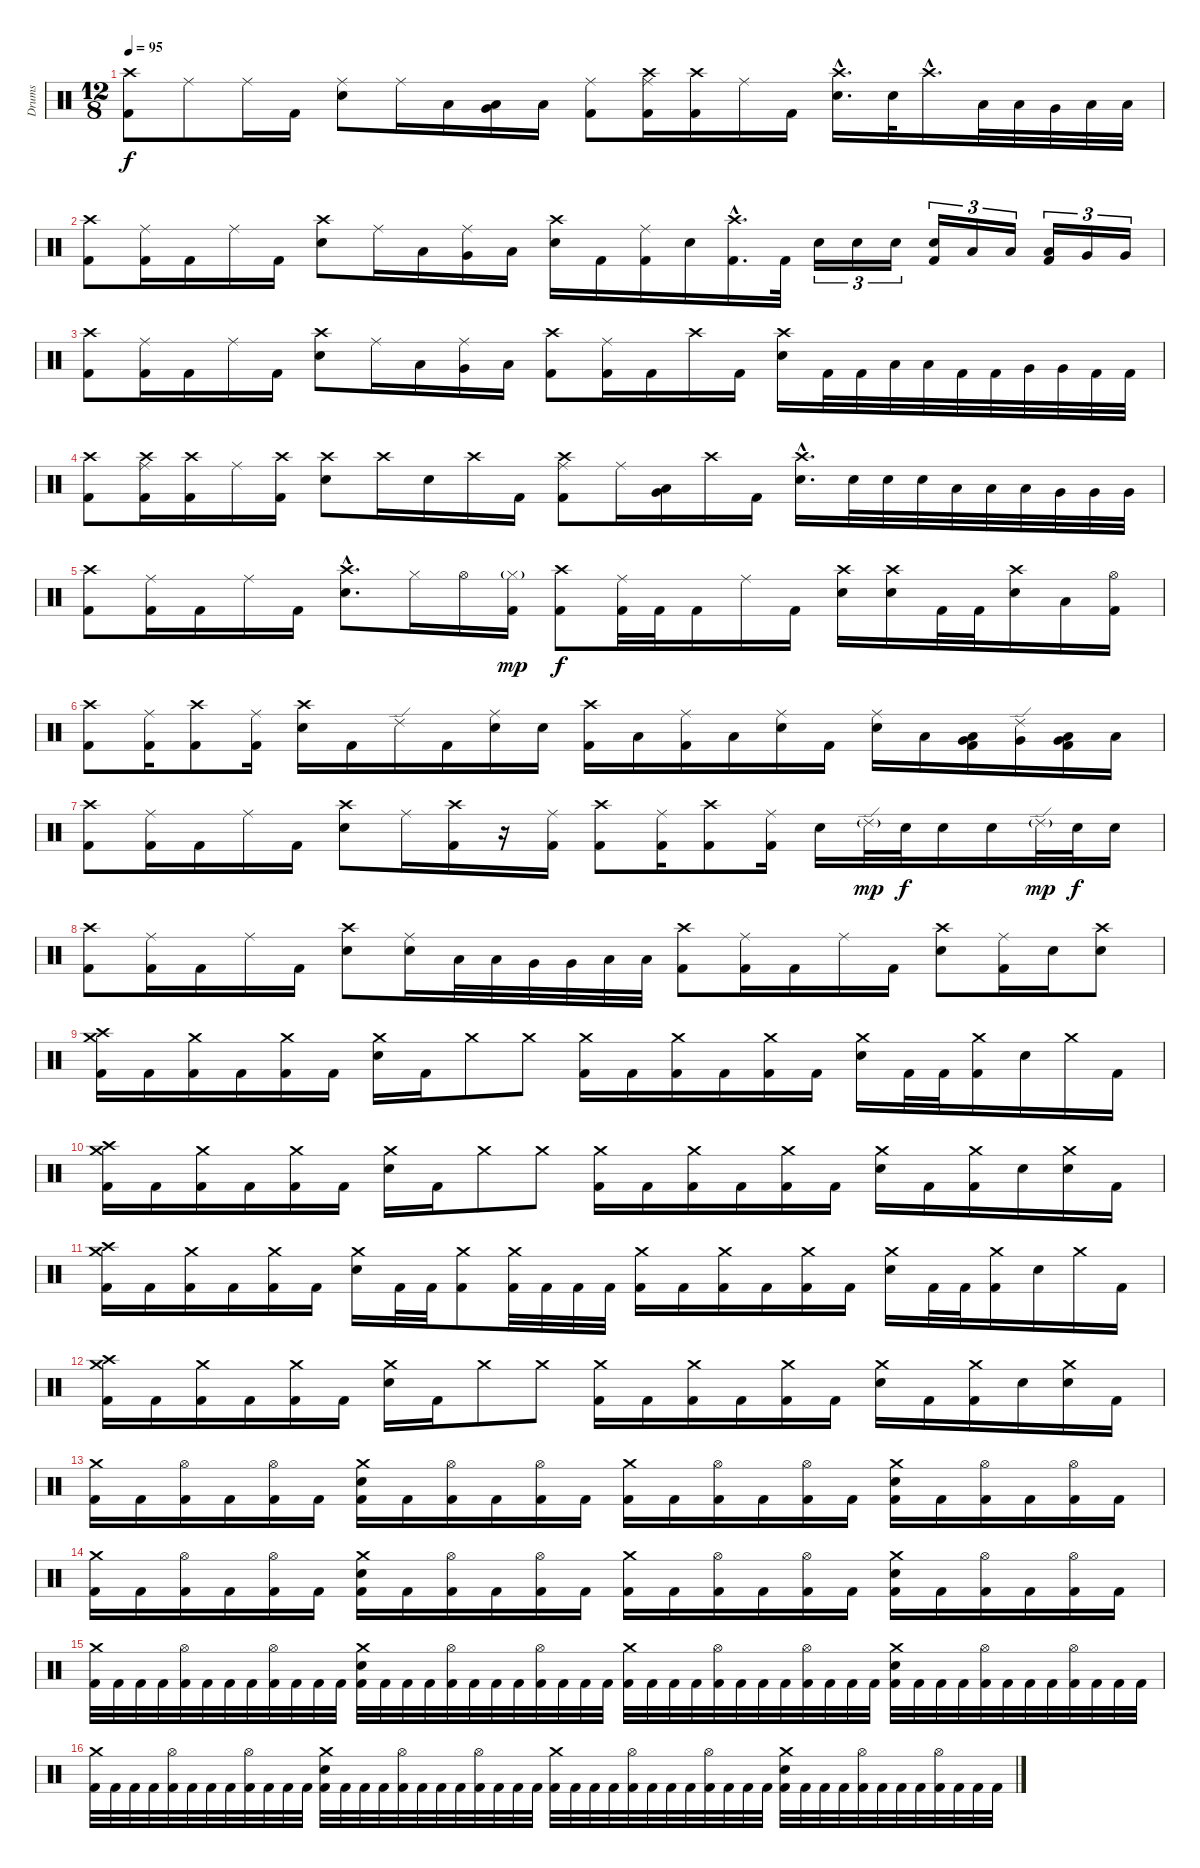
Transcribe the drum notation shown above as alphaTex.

\track ("Drums" "Drums") {instrument percussion}
\staff {score}
\articulation defaults
\ts (12 8)
\tempo 95
\clef neutral
\ks c
("Crash high (hit)" "Kick (hit) 2").8{dy f} "Ride (middle)".8 "Ride (middle)".16 "Kick (hit) 2".16 ("Ride (middle)" "Snare (hit) 2").8 "Ride (middle)".16 "Low Tom (hit)".16 ("Low Tom (hit)" "Very Low Tom (hit)").16 "Low Floor Tom (hit)".16 ("Ride (middle)" "Kick (hit) 2").8 ("Crash high (hit)" "Ride (middle)" "Kick (hit) 2").16 ("Crash high (hit)" "Kick (hit) 2").16 "Ride (middle)".16 "Kick (hit) 2".16 ("Crash high (hit)"{hac} "Snare (hit) 2"{hac}).16{d} "Snare (hit) 2".32 "Crash high (hit)"{hac}.16{d} "Low Tom (hit)".32 "Low Tom (hit)".32 "Very Low Tom (hit)".32 "Low Floor Tom (hit)".32 "Low Floor Tom (hit)".32 |
("Crash high (hit)" "Kick (hit) 2").8 ("Ride (middle)" "Kick (hit) 2").16 "Kick (hit) 2".16 "Ride (middle)".16 "Kick (hit) 2".16 ("Crash high (hit)" "Snare (hit) 2").8 "Ride (middle)".16 "Low Tom (hit)".16 ("Ride (middle)" "Very Low Tom (hit)").16 "Low Floor Tom (hit)".16 ("Crash high (hit)" "Snare (hit) 2").16 "Kick (hit) 2".16 ("Ride (middle)" "Kick (hit) 2").16 "Snare (hit) 2".16 ("Crash high (hit)"{hac} "Kick (hit) 2"{hac}).16{d} "Kick (hit) 2".32 "Snare (hit) 2".16{tu (3 2)} "Snare (hit) 2".16{tu (3 2)} "Snare (hit) 2".16{tu (3 2)} ("Snare (hit) 2" "Kick (hit) 2").16{tu (3 2)} "Low Tom (hit)".16{tu (3 2)} "Low Tom (hit)".16{tu (3 2)} ("Low Tom (hit)" "Kick (hit) 2").16{tu (3 2)} "Very Low Tom (hit)".16{tu (3 2)} "Very Low Tom (hit)".16{tu (3 2)} |
("Crash high (hit)" "Kick (hit) 2").8 ("Ride (middle)" "Kick (hit) 2").16 "Kick (hit) 2".16 "Ride (middle)".16 "Kick (hit) 2".16 ("Crash high (hit)" "Snare (hit) 2").8 "Ride (middle)".16 "Low Tom (hit)".16 ("Ride (middle)" "Very Low Tom (hit)").16 "Low Floor Tom (hit)".16 ("Crash high (hit)" "Kick (hit) 2").8 ("Ride (middle)" "Kick (hit) 2").16 "Kick (hit) 2".16 "Crash high (hit)".16 "Kick (hit) 2".16 ("Crash high (hit)" "Snare (hit) 2").16 "Kick (hit) 2".32 "Kick (hit) 2".32 "Low Tom (hit)".32 "Low Tom (hit)".32 "Kick (hit) 2".32 "Kick (hit) 2".32 "Very Low Tom (hit)".32 "Very Low Tom (hit)".32 "Kick (hit) 2".32 "Kick (hit) 2".32 |
("Crash high (hit)" "Kick (hit) 2").8 ("Crash high (hit)" "Ride (middle)" "Kick (hit) 2").16 ("Crash high (hit)" "Kick (hit) 2").16 "Ride (middle)".16 ("Crash high (hit)" "Kick (hit) 2").16 ("Crash high (hit)" "Snare (hit) 2").8 "Crash high (hit)".16 "Snare (hit) 2".16 "Crash high (hit)".16 "Kick (hit) 2".16 ("Crash high (hit)" "Ride (middle)" "Kick (hit) 2").8 "Ride (middle)".16 ("Very Low Tom (hit)" "Low Tom (hit)").16 "Crash high (hit)".16 "Kick (hit) 2".16 ("Crash high (hit)"{hac} "Snare (hit) 2"{hac}).16{d} "Snare (hit) 2".32 "Snare (hit) 2".32 "Snare (hit) 2".32 "Low Tom (hit)".32 "Low Tom (hit)".32 "Low Tom (hit)".32 "Very Low Tom (hit)".32 "Very Low Tom (hit)".32 "Very Low Tom (hit)".32 |
("Crash high (hit)" "Kick (hit) 2").8 ("Ride (middle)" "Kick (hit) 2").16 "Kick (hit) 2".16 "Ride (middle)".16 "Kick (hit) 2".16 ("Crash high (hit)"{hac} "Snare (hit) 2"{hac}).8{d} "Hi-Hat (closed)".16 "Hi-Hat (open)".16 ("Hi-Hat (closed)"{g} "Kick (hit) 2").16{dy mp} ("Crash high (hit)" "Kick (hit) 2").8{dy f} ("Ride (middle)" "Kick (hit) 2").32 "Kick (hit) 2".32 "Kick (hit) 2".16 "Ride (middle)".16 "Kick (hit) 2".16 ("Crash high (hit)" "Snare (hit) 2").16 ("Crash high (hit)" "Snare (hit) 2").16 "Kick (hit) 2".32 "Kick (hit) 2".32 ("Crash high (hit)" "Snare (hit) 2").16 "Low Tom (hit)".16 ("Hi-Hat (open)" "Kick (hit) 2").16 |
("Crash high (hit)" "Kick (hit) 2").8 ("Ride (middle)" "Kick (hit) 2").16 ("Crash high (hit)" "Kick (hit) 2").8 ("Ride (middle)" "Kick (hit) 2").16 ("Crash high (hit)" "Snare (hit) 2").16 "Kick (hit) 2".16 "Ride (edge) 2".16 "Kick (hit) 2".16 ("Ride (middle)" "Snare (hit) 2").16 "Snare (hit) 2".16 ("Crash high (hit)" "Kick (hit) 2").16 "Low Tom (hit)".16 ("Ride (middle)" "Kick (hit) 2").16 "Low Tom (hit)".16 ("Ride (middle)" "Snare (hit) 2").16 "Kick (hit) 2".16 ("Ride (middle)" "Snare (hit) 2").16 "Low Tom (hit)".16 ("Very Low Tom (hit)" "Low Tom (hit)" "Kick (hit) 2").16 ("Ride (edge) 2" "Very Low Tom (hit)").16 ("Low Floor Tom (hit)" "Very Low Tom (hit)" "Kick (hit) 2").16 "Low Floor Tom (hit)".16 |
("Crash high (hit)" "Kick (hit) 2").8 ("Ride (middle)" "Kick (hit) 2").16 "Kick (hit) 2".16 "Ride (middle)".16 "Kick (hit) 2".16 ("Crash high (hit)" "Snare (hit) 2").8 "Ride (middle)".16 ("Crash high (hit)" "Kick (hit) 2").16 r.16 ("Ride (middle)" "Kick (hit) 2").16 ("Crash high (hit)" "Kick (hit) 2").8 ("Ride (middle)" "Kick (hit) 2").16 ("Crash high (hit)" "Kick (hit) 2").8 ("Ride (middle)" "Kick (hit) 2").16 "Snare (hit) 2".16 "Ride (edge) 2"{g}.32{dy mp} "Snare (hit) 2".32{dy f} "Snare (hit) 2".16 "Snare (hit) 2".16 "Ride (edge) 2"{g}.32{dy mp} "Snare (hit) 2".32{dy f} "Snare (hit) 2".16 |
("Crash high (hit)" "Kick (hit) 2").8 ("Ride (middle)" "Kick (hit) 2").16 "Kick (hit) 2".16 "Ride (middle)".16 "Kick (hit) 2".16 ("Crash high (hit)" "Snare (hit) 2").8 ("Ride (middle)" "Snare (hit) 2").16 "Low Tom (hit)".32 "Low Tom (hit)".32 "Very Low Tom (hit)".32 "Very Low Tom (hit)".32 "Low Floor Tom (hit)".32 "Low Floor Tom (hit)".32 ("Crash high (hit)" "Kick (hit) 2").8 ("Ride (middle)" "Kick (hit) 2").16 "Kick (hit) 2".16 "Ride (middle)".16 "Kick (hit) 2".16 ("Crash high (hit)" "Snare (hit) 2").8 ("Ride (middle)" "Kick (hit) 2").16 "Snare (hit) 2".16 ("Crash high (hit)" "Snare (hit) 2").8 |
("Crash medium (hit)" "Crash high (hit)" "Kick (hit) 2").16 "Kick (hit) 2".16 ("Crash medium (hit)" "Kick (hit) 2").16 "Kick (hit) 2".16 ("Crash medium (hit)" "Kick (hit) 2").16 "Kick (hit) 2".16 ("Crash medium (hit)" "Snare (hit) 2").16 "Kick (hit) 2".16 "Crash medium (hit)".8 "Crash medium (hit)".8 ("Crash medium (hit)" "Kick (hit) 2").16 "Kick (hit) 2".16 ("Crash medium (hit)" "Kick (hit) 2").16 "Kick (hit) 2".16 ("Crash medium (hit)" "Kick (hit) 2").16 "Kick (hit) 2".16 ("Crash medium (hit)" "Snare (hit) 2").16 "Kick (hit) 2".32 "Kick (hit) 2".32 ("Crash medium (hit)" "Kick (hit) 2").16 "Snare (hit) 2".16 "Crash medium (hit)".16 "Kick (hit) 2".16 |
("Crash medium (hit)" "Crash high (hit)" "Kick (hit) 2").16 "Kick (hit) 2".16 ("Crash medium (hit)" "Kick (hit) 2").16 "Kick (hit) 2".16 ("Crash medium (hit)" "Kick (hit) 2").16 "Kick (hit) 2".16 ("Crash medium (hit)" "Snare (hit) 2").16 "Kick (hit) 2".16 "Crash medium (hit)".8 "Crash medium (hit)".8 ("Crash medium (hit)" "Kick (hit) 2").16 "Kick (hit) 2".16 ("Crash medium (hit)" "Kick (hit) 2").16 "Kick (hit) 2".16 ("Crash medium (hit)" "Kick (hit) 2").16 "Kick (hit) 2".16 ("Crash medium (hit)" "Snare (hit) 2").16 "Kick (hit) 2".16 ("Crash medium (hit)" "Kick (hit) 2").16 "Snare (hit) 2".16 ("Crash medium (hit)" "Snare (hit) 2").16 "Kick (hit) 2".16 |
("Crash medium (hit)" "Crash high (hit)" "Kick (hit) 2").16 "Kick (hit) 2".16 ("Crash medium (hit)" "Kick (hit) 2").16 "Kick (hit) 2".16 ("Crash medium (hit)" "Kick (hit) 2").16 "Kick (hit) 2".16 ("Crash medium (hit)" "Snare (hit) 2").16 "Kick (hit) 2".32 "Kick (hit) 2".32 ("Crash medium (hit)" "Kick (hit) 2").8 ("Crash medium (hit)" "Kick (hit) 2").32 "Kick (hit) 2".32 "Kick (hit) 2".32 "Kick (hit) 2".32 ("Crash medium (hit)" "Kick (hit) 2").16 "Kick (hit) 2".16 ("Crash medium (hit)" "Kick (hit) 2").16 "Kick (hit) 2".16 ("Crash medium (hit)" "Kick (hit) 2").16 "Kick (hit) 2".16 ("Crash medium (hit)" "Snare (hit) 2").16 "Kick (hit) 2".32 "Kick (hit) 2".32 ("Crash medium (hit)" "Kick (hit) 2").16 "Snare (hit) 2".16 "Crash medium (hit)".16 "Kick (hit) 2".16 |
("Crash medium (hit)" "Crash high (hit)" "Kick (hit) 2").16 "Kick (hit) 2".16 ("Crash medium (hit)" "Kick (hit) 2").16 "Kick (hit) 2".16 ("Crash medium (hit)" "Kick (hit) 2").16 "Kick (hit) 2".16 ("Crash medium (hit)" "Snare (hit) 2").16 "Kick (hit) 2".16 "Crash medium (hit)".8 "Crash medium (hit)".8 ("Crash medium (hit)" "Kick (hit) 2").16 "Kick (hit) 2".16 ("Crash medium (hit)" "Kick (hit) 2").16 "Kick (hit) 2".16 ("Crash medium (hit)" "Kick (hit) 2").16 "Kick (hit) 2".16 ("Crash medium (hit)" "Snare (hit) 2").16 "Kick (hit) 2".16 ("Crash medium (hit)" "Kick (hit) 2").16 "Snare (hit) 2".16 ("Crash medium (hit)" "Snare (hit) 2").16 "Kick (hit) 2".16 |
("Crash medium (hit)" "Kick (hit) 2").16 "Kick (hit) 2".16 ("Hi-Hat (open)" "Kick (hit) 2").16 "Kick (hit) 2".16 ("Hi-Hat (open)" "Kick (hit) 2").16 "Kick (hit) 2".16 ("Crash medium (hit)" "Snare (hit) 2" "Kick (hit) 2").16 "Kick (hit) 2".16 ("Hi-Hat (open)" "Kick (hit) 2").16 "Kick (hit) 2".16 ("Hi-Hat (open)" "Kick (hit) 2").16 "Kick (hit) 2".16 ("Crash medium (hit)" "Kick (hit) 2").16 "Kick (hit) 2".16 ("Hi-Hat (open)" "Kick (hit) 2").16 "Kick (hit) 2".16 ("Hi-Hat (open)" "Kick (hit) 2").16 "Kick (hit) 2".16 ("Crash medium (hit)" "Snare (hit) 2" "Kick (hit) 2").16 "Kick (hit) 2".16 ("Hi-Hat (open)" "Kick (hit) 2").16 "Kick (hit) 2".16 ("Hi-Hat (open)" "Kick (hit) 2").16 "Kick (hit) 2".16 |
("Crash medium (hit)" "Kick (hit) 2").16 "Kick (hit) 2".16 ("Hi-Hat (open)" "Kick (hit) 2").16 "Kick (hit) 2".16 ("Hi-Hat (open)" "Kick (hit) 2").16 "Kick (hit) 2".16 ("Crash medium (hit)" "Snare (hit) 2" "Kick (hit) 2").16 "Kick (hit) 2".16 ("Hi-Hat (open)" "Kick (hit) 2").16 "Kick (hit) 2".16 ("Hi-Hat (open)" "Kick (hit) 2").16 "Kick (hit) 2".16 ("Crash medium (hit)" "Kick (hit) 2").16 "Kick (hit) 2".16 ("Hi-Hat (open)" "Kick (hit) 2").16 "Kick (hit) 2".16 ("Hi-Hat (open)" "Kick (hit) 2").16 "Kick (hit) 2".16 ("Crash medium (hit)" "Snare (hit) 2" "Kick (hit) 2").16 "Kick (hit) 2".16 ("Hi-Hat (open)" "Kick (hit) 2").16 "Kick (hit) 2".16 ("Hi-Hat (open)" "Kick (hit) 2").16 "Kick (hit) 2".16 |
("Crash medium (hit)" "Kick (hit) 2").32 "Kick (hit) 2".32 "Kick (hit) 2".32 "Kick (hit) 2".32 ("Hi-Hat (open)" "Kick (hit) 2").32 "Kick (hit) 2".32 "Kick (hit) 2".32 "Kick (hit) 2".32 ("Hi-Hat (open)" "Kick (hit) 2").32 "Kick (hit) 2".32 "Kick (hit) 2".32 "Kick (hit) 2".32 ("Crash medium (hit)" "Snare (hit) 2" "Kick (hit) 2").32 "Kick (hit) 2".32 "Kick (hit) 2".32 "Kick (hit) 2".32 ("Hi-Hat (open)" "Kick (hit) 2").32 "Kick (hit) 2".32 "Kick (hit) 2".32 "Kick (hit) 2".32 ("Hi-Hat (open)" "Kick (hit) 2").32 "Kick (hit) 2".32 "Kick (hit) 2".32 "Kick (hit) 2".32 ("Crash medium (hit)" "Kick (hit) 2").32 "Kick (hit) 2".32 "Kick (hit) 2".32 "Kick (hit) 2".32 ("Hi-Hat (open)" "Kick (hit) 2").32 "Kick (hit) 2".32 "Kick (hit) 2".32 "Kick (hit) 2".32 ("Hi-Hat (open)" "Kick (hit) 2").32 "Kick (hit) 2".32 "Kick (hit) 2".32 "Kick (hit) 2".32 ("Crash medium (hit)" "Snare (hit) 2" "Kick (hit) 2").32 "Kick (hit) 2".32 "Kick (hit) 2".32 "Kick (hit) 2".32 ("Hi-Hat (open)" "Kick (hit) 2").32 "Kick (hit) 2".32 "Kick (hit) 2".32 "Kick (hit) 2".32 ("Hi-Hat (open)" "Kick (hit) 2").32 "Kick (hit) 2".32 "Kick (hit) 2".32 "Kick (hit) 2".32 |
("Crash medium (hit)" "Kick (hit) 2").32 "Kick (hit) 2".32 "Kick (hit) 2".32 "Kick (hit) 2".32 ("Hi-Hat (open)" "Kick (hit) 2").32 "Kick (hit) 2".32 "Kick (hit) 2".32 "Kick (hit) 2".32 ("Hi-Hat (open)" "Kick (hit) 2").32 "Kick (hit) 2".32 "Kick (hit) 2".32 "Kick (hit) 2".32 ("Crash medium (hit)" "Snare (hit) 2" "Kick (hit) 2").32 "Kick (hit) 2".32 "Kick (hit) 2".32 "Kick (hit) 2".32 ("Hi-Hat (open)" "Kick (hit) 2").32 "Kick (hit) 2".32 "Kick (hit) 2".32 "Kick (hit) 2".32 ("Hi-Hat (open)" "Kick (hit) 2").32 "Kick (hit) 2".32 "Kick (hit) 2".32 "Kick (hit) 2".32 ("Crash medium (hit)" "Kick (hit) 2").32 "Kick (hit) 2".32 "Kick (hit) 2".32 "Kick (hit) 2".32 ("Hi-Hat (open)" "Kick (hit) 2").32 "Kick (hit) 2".32 "Kick (hit) 2".32 "Kick (hit) 2".32 ("Hi-Hat (open)" "Kick (hit) 2").32 "Kick (hit) 2".32 "Kick (hit) 2".32 "Kick (hit) 2".32 ("Crash medium (hit)" "Snare (hit) 2" "Kick (hit) 2").32 "Kick (hit) 2".32 "Kick (hit) 2".32 "Kick (hit) 2".32 ("Hi-Hat (open)" "Kick (hit) 2").32 "Kick (hit) 2".32 "Kick (hit) 2".32 "Kick (hit) 2".32 ("Hi-Hat (open)" "Kick (hit) 2").32 "Kick (hit) 2".32 "Kick (hit) 2".32 "Kick (hit) 2".32
